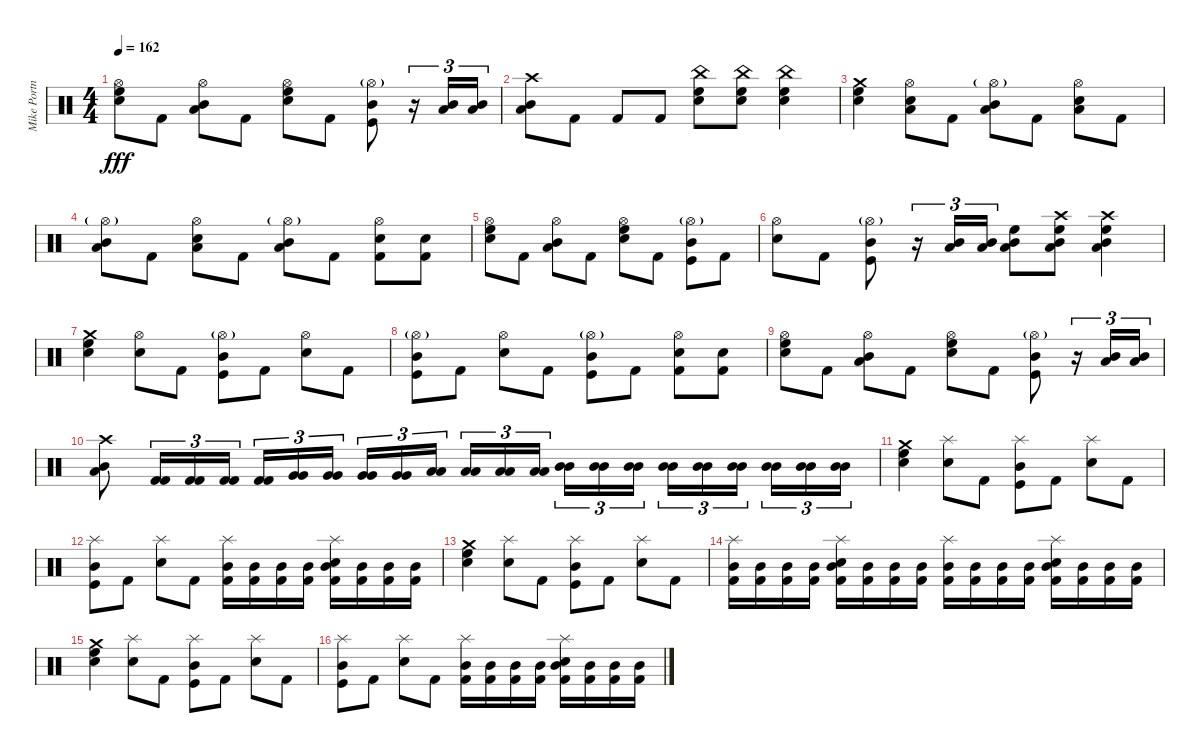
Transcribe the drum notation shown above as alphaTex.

\track ("Mike Portnoy" "Mike Portn") {instrument percussion}
\staff {score}
\articulation defaults
\ts (4 4)
\tempo 162
\clef neutral
\ks c
("Hi-Hat (open)" "Electric Snare (hit)" "High Floor Tom (hit)").8{dy fff} "Kick (hit) 2".8 ("Hi-Hat (open)" "Mid Tom (hit)" "Low Tom (hit)").8 "Kick (hit) 2".8 ("Hi-Hat (open)" "Electric Snare (hit)" "High Floor Tom (hit)").8 "Kick (hit) 2".8 ("Hi-Hat (open)"{g} "Mid Tom (hit)" "Kick (hit)").8 r.16{tu (3 2)} ("Mid Tom (hit)" "Low Tom (hit)").16{tu (3 2)} ("Mid Tom (hit)" "Low Tom (hit)").16{tu (3 2)} |
("Crash high (hit)" "Mid Tom (hit)" "Low Tom (hit)").8 "Kick (hit) 2".8 "Kick (hit) 2".8 "Kick (hit) 2".8 ("China (hit)" "Electric Snare (hit)" "High Floor Tom (hit)").8 ("China (hit)" "Electric Snare (hit)" "High Floor Tom (hit)").8 ("China (hit)" "Electric Snare (hit)" "High Floor Tom (hit)").4 |
("Crash medium (hit)" "Electric Snare (hit)" "High Floor Tom (hit)").4 ("Hi-Hat (open)" "Electric Snare (hit)" "Low Tom (hit)").8 "Kick (hit) 2".8 ("Hi-Hat (open)"{g} "Mid Tom (hit)" "Low Tom (hit)").8 "Kick (hit) 2".8 ("Hi-Hat (open)" "Electric Snare (hit)" "Low Tom (hit)").8 "Kick (hit) 2".8 |
("Hi-Hat (open)"{g} "Mid Tom (hit)" "Low Tom (hit)").8 "Kick (hit) 2".8 ("Hi-Hat (open)" "Electric Snare (hit)" "Low Tom (hit)").8 "Kick (hit) 2".8 ("Hi-Hat (open)"{g} "Mid Tom (hit)" "Low Tom (hit)").8 "Kick (hit) 2".8 ("Hi-Hat (open)" "Electric Snare (hit)" "Kick (hit) 2").8 ("Electric Snare (hit)" "Kick (hit) 2").8 |
("Hi-Hat (open)" "Electric Snare (hit)" "High Floor Tom (hit)").8 "Kick (hit) 2".8 ("Hi-Hat (open)" "Mid Tom (hit)" "Low Tom (hit)").8 "Kick (hit) 2".8 ("Hi-Hat (open)" "Electric Snare (hit)" "High Floor Tom (hit)").8 "Kick (hit) 2".8 ("Hi-Hat (open)"{g} "Mid Tom (hit)" "Kick (hit)").8 "Kick (hit) 2".8 |
("Hi-Hat (open)" "Electric Snare (hit)").8 "Kick (hit) 2".8 ("Hi-Hat (open)"{g} "Mid Tom (hit)" "Kick (hit)").8 r.16{tu (3 2)} ("Mid Tom (hit)" "Low Tom (hit)").16{tu (3 2) bd 60} ("Mid Tom (hit)" "Low Tom (hit)").16{tu (3 2)} ("Low Tom (hit)" "Mid Tom (hit)" "High Floor Tom (hit)").8 ("Crash high (hit)" "Low Tom (hit)" "Mid Tom (hit)" "High Floor Tom (hit)").8 ("Crash high (hit)" "Low Tom (hit)" "Mid Tom (hit)" "High Floor Tom (hit)").4 |
("Crash medium (hit)" "Electric Snare (hit)" "High Floor Tom (hit)").4 ("Hi-Hat (open)" "Electric Snare (hit)").8 "Kick (hit) 2".8 ("Hi-Hat (open)"{g} "Mid Tom (hit)" "Kick (hit)").8 "Kick (hit) 2".8 ("Hi-Hat (open)" "Electric Snare (hit)").8 "Kick (hit) 2".8 |
("Hi-Hat (open)"{g} "Mid Tom (hit)" "Kick (hit)").8 "Kick (hit) 2".8 ("Hi-Hat (open)" "Electric Snare (hit)").8 "Kick (hit) 2".8 ("Hi-Hat (open)"{g} "Mid Tom (hit)" "Kick (hit)").8 "Kick (hit) 2".8 ("Hi-Hat (open)" "Electric Snare (hit)" "Kick (hit) 2").8 ("Electric Snare (hit)" "Kick (hit) 2").8 |
("Hi-Hat (open)" "Electric Snare (hit)" "High Floor Tom (hit)").8 "Kick (hit) 2".8 ("Hi-Hat (open)" "Mid Tom (hit)" "Low Tom (hit)").8 "Kick (hit) 2".8 ("Hi-Hat (open)" "Electric Snare (hit)" "High Floor Tom (hit)").8 "Kick (hit) 2".8 ("Hi-Hat (open)"{g} "Mid Tom (hit)" "Kick (hit)").8 r.16{tu (3 2)} ("Mid Tom (hit)" "Low Tom (hit)").16{tu (3 2)} ("Mid Tom (hit)" "Low Tom (hit)").16{tu (3 2)} |
("Crash high (hit)" "Mid Tom (hit)" "Low Tom (hit)").8 ("Kick (hit) 2" "Kick (hit) 2").16{tu (3 2)} ("Kick (hit) 2" "Kick (hit) 2").16{tu (3 2)} ("Kick (hit) 2" "Kick (hit) 2").16{tu (3 2)} ("Kick (hit) 2" "Kick (hit) 2").16{tu (3 2)} ("Very Low Tom (hit)" "Very Low Tom (hit)").16{tu (3 2)} ("Very Low Tom (hit)" "Very Low Tom (hit)").16{tu (3 2) beam splitsecondary} ("Very Low Tom (hit)" "Very Low Tom (hit)").16{tu (3 2)} ("Very Low Tom (hit)" "Very Low Tom (hit)").16{tu (3 2)} ("Low Tom (hit)" "Low Tom (hit)").16{tu (3 2)} ("Low Tom (hit)" "Low Tom (hit)").16{tu (3 2)} ("Low Tom (hit)" "Low Tom (hit)").16{tu (3 2)} ("Low Tom (hit)" "Low Tom (hit)").16{tu (3 2) beam splitsecondary} ("Mid Tom (hit)" "Mid Tom (hit)").16{tu (3 2)} ("Mid Tom (hit)" "Mid Tom (hit)").16{tu (3 2)} ("Mid Tom (hit)" "Mid Tom (hit)").16{tu (3 2)} ("Mid Tom (hit)" "Mid Tom (hit)").16{tu (3 2)} ("Mid Tom (hit)" "Mid Tom (hit)").16{tu (3 2)} ("Mid Tom (hit)" "Mid Tom (hit)").16{tu (3 2) beam splitsecondary} ("Mid Tom (hit)" "Mid Tom (hit)").16{tu (3 2)} ("Mid Tom (hit)" "Mid Tom (hit)").16{tu (3 2)} ("Mid Tom (hit)" "Mid Tom (hit)").16{tu (3 2)} |
("Crash medium (hit)" "Electric Snare (hit)" "High Floor Tom (hit)").4 ("Splash (hit)" "Electric Snare (hit)").8 "Kick (hit) 2".8 ("Splash (hit)" "Mid Tom (hit)" "Kick (hit)").8 "Kick (hit) 2".8 ("Splash (hit)" "Electric Snare (hit)").8 "Kick (hit) 2".8 |
("Splash (hit)" "Mid Tom (hit)" "Kick (hit)").8 "Kick (hit) 2".8 ("Splash (hit)" "Electric Snare (hit)").8 "Kick (hit) 2".8 ("Splash (hit)" "Mid Tom (hit)" "Kick (hit) 2").16 ("Mid Tom (hit)" "Kick (hit) 2").16 ("Mid Tom (hit)" "Kick (hit) 2").16 ("Mid Tom (hit)" "Kick (hit) 2").16 ("Splash (hit)" "Electric Snare (hit)" "Mid Tom (hit)" "Kick (hit) 2").16 ("Mid Tom (hit)" "Kick (hit) 2").16 ("Mid Tom (hit)" "Kick (hit) 2").16 ("Mid Tom (hit)" "Kick (hit) 2").16 |
("Crash medium (hit)" "Electric Snare (hit)" "High Floor Tom (hit)").4 ("Splash (hit)" "Electric Snare (hit)").8 "Kick (hit) 2".8 ("Splash (hit)" "Mid Tom (hit)" "Kick (hit)").8 "Kick (hit) 2".8 ("Splash (hit)" "Electric Snare (hit)").8 "Kick (hit) 2".8 |
("Splash (hit)" "Mid Tom (hit)" "Kick (hit) 2").16 ("Mid Tom (hit)" "Kick (hit) 2").16 ("Mid Tom (hit)" "Kick (hit) 2").16 ("Mid Tom (hit)" "Kick (hit) 2").16 ("Splash (hit)" "Electric Snare (hit)" "Mid Tom (hit)" "Kick (hit) 2").16 ("Mid Tom (hit)" "Kick (hit) 2").16 ("Mid Tom (hit)" "Kick (hit) 2").16 ("Mid Tom (hit)" "Kick (hit) 2").16 ("Splash (hit)" "Mid Tom (hit)" "Kick (hit) 2").16 ("Mid Tom (hit)" "Kick (hit) 2").16 ("Mid Tom (hit)" "Kick (hit) 2").16 ("Mid Tom (hit)" "Kick (hit) 2").16 ("Splash (hit)" "Electric Snare (hit)" "Mid Tom (hit)" "Kick (hit) 2").16 ("Mid Tom (hit)" "Kick (hit) 2").16 ("Mid Tom (hit)" "Kick (hit) 2").16 ("Mid Tom (hit)" "Kick (hit) 2").16 |
("Crash medium (hit)" "Electric Snare (hit)" "High Floor Tom (hit)").4 ("Splash (hit)" "Electric Snare (hit)").8 "Kick (hit) 2".8 ("Splash (hit)" "Mid Tom (hit)" "Kick (hit)").8 "Kick (hit) 2".8 ("Splash (hit)" "Electric Snare (hit)").8 "Kick (hit) 2".8 |
("Splash (hit)" "Mid Tom (hit)" "Kick (hit)").8 "Kick (hit) 2".8 ("Splash (hit)" "Electric Snare (hit)").8 "Kick (hit) 2".8 ("Splash (hit)" "Mid Tom (hit)" "Kick (hit) 2").16 ("Mid Tom (hit)" "Kick (hit) 2").16 ("Mid Tom (hit)" "Kick (hit) 2").16 ("Mid Tom (hit)" "Kick (hit) 2").16 ("Splash (hit)" "Electric Snare (hit)" "Mid Tom (hit)" "Kick (hit) 2").16 ("Mid Tom (hit)" "Kick (hit) 2").16 ("Mid Tom (hit)" "Kick (hit) 2").16 ("Mid Tom (hit)" "Kick (hit) 2").16
